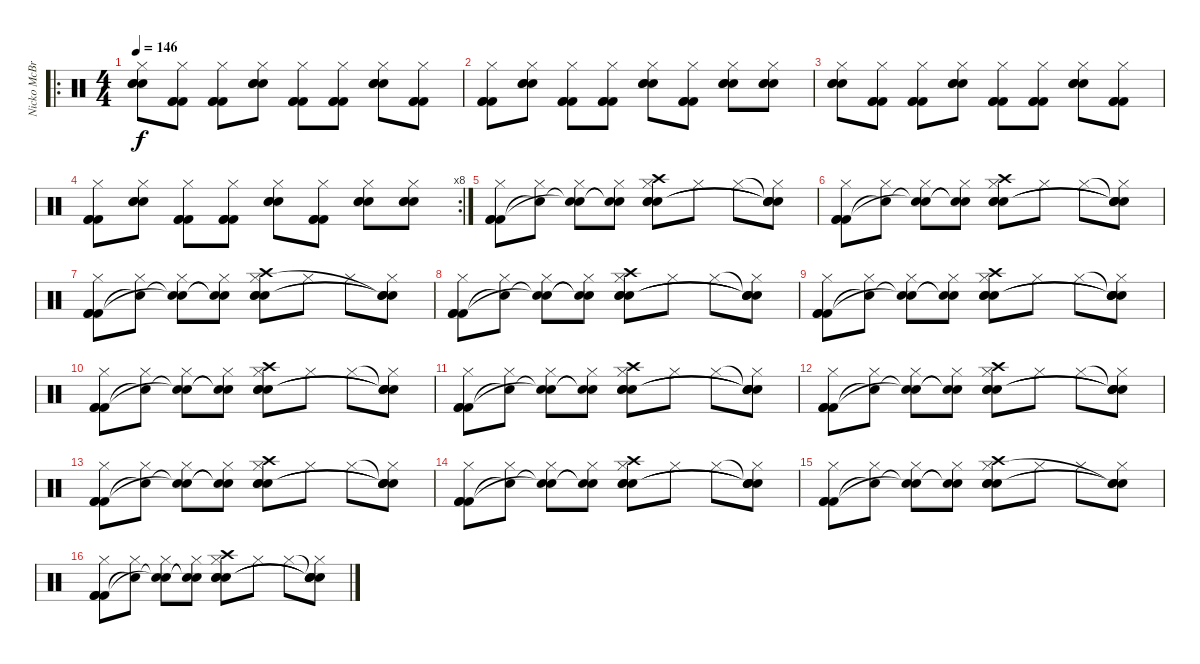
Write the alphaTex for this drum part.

\track ("Nicko McBrain" "Nicko McBr") {instrument percussion}
\staff {score}
\articulation defaults
\ro
\ts (4 4)
\tempo 146
\clef neutral
\ks c
("Hi-Hat (closed)" "Snare (hit) 2" "Snare (hit) 2" "Snare (hit) 2").8{dy f} ("Hi-Hat (closed)" "Kick (hit) 2" "Kick (hit) 2" "Kick (hit) 2").8 ("Hi-Hat (closed)" "Kick (hit) 2" "Kick (hit) 2" "Kick (hit) 2").8 ("Hi-Hat (closed)" "Snare (hit) 2" "Snare (hit) 2" "Snare (hit) 2").8 ("Hi-Hat (closed)" "Kick (hit) 2" "Kick (hit) 2" "Kick (hit) 2").8 ("Hi-Hat (closed)" "Kick (hit) 2" "Kick (hit) 2" "Kick (hit) 2").8 ("Hi-Hat (closed)" "Snare (hit) 2" "Snare (hit) 2" "Snare (hit) 2").8 ("Hi-Hat (closed)" "Kick (hit) 2" "Kick (hit) 2" "Kick (hit) 2").8 |
("Hi-Hat (closed)" "Kick (hit) 2" "Kick (hit) 2" "Kick (hit) 2").8 ("Hi-Hat (closed)" "Snare (hit) 2" "Snare (hit) 2" "Snare (hit) 2").8 ("Hi-Hat (closed)" "Kick (hit) 2" "Kick (hit) 2" "Kick (hit) 2").8 ("Hi-Hat (closed)" "Kick (hit) 2" "Kick (hit) 2" "Kick (hit) 2").8 ("Hi-Hat (closed)" "Snare (hit) 2" "Snare (hit) 2" "Snare (hit) 2").8 ("Hi-Hat (closed)" "Kick (hit) 2" "Kick (hit) 2" "Kick (hit) 2").8 ("Hi-Hat (closed)" "Snare (hit) 2" "Snare (hit) 2" "Snare (hit) 2").8 ("Hi-Hat (closed)" "Snare (hit) 2" "Snare (hit) 2" "Snare (hit) 2").8 |
("Hi-Hat (closed)" "Snare (hit) 2" "Snare (hit) 2" "Snare (hit) 2").8 ("Hi-Hat (closed)" "Kick (hit) 2" "Kick (hit) 2" "Kick (hit) 2").8 ("Hi-Hat (closed)" "Kick (hit) 2" "Kick (hit) 2" "Kick (hit) 2").8 ("Hi-Hat (closed)" "Snare (hit) 2" "Snare (hit) 2" "Snare (hit) 2").8 ("Hi-Hat (closed)" "Kick (hit) 2" "Kick (hit) 2" "Kick (hit) 2").8 ("Hi-Hat (closed)" "Kick (hit) 2" "Kick (hit) 2" "Kick (hit) 2").8 ("Hi-Hat (closed)" "Snare (hit) 2" "Snare (hit) 2" "Snare (hit) 2").8 ("Hi-Hat (closed)" "Kick (hit) 2" "Kick (hit) 2" "Kick (hit) 2").8 |
\rc 8
("Hi-Hat (closed)" "Kick (hit) 2" "Kick (hit) 2" "Kick (hit) 2").8 ("Hi-Hat (closed)" "Snare (hit) 2" "Snare (hit) 2" "Snare (hit) 2").8 ("Hi-Hat (closed)" "Kick (hit) 2" "Kick (hit) 2" "Kick (hit) 2").8 ("Hi-Hat (closed)" "Kick (hit) 2" "Kick (hit) 2" "Kick (hit) 2").8 ("Hi-Hat (closed)" "Snare (hit) 2" "Snare (hit) 2" "Snare (hit) 2").8 ("Hi-Hat (closed)" "Kick (hit) 2" "Kick (hit) 2" "Kick (hit) 2").8 ("Hi-Hat (closed)" "Snare (hit) 2" "Snare (hit) 2" "Snare (hit) 2").8 ("Hi-Hat (closed)" "Snare (hit) 2" "Snare (hit) 2" "Snare (hit) 2").8 |
("Hi-Hat (closed)" "Kick (hit) 2" "Kick (hit) 2" "Kick (hit) 2").8 ("Hi-Hat (closed)" "Snare (hit)"{t}).8 ("Hi-Hat (closed)" "Snare (hit)"{t} "Snare (hit)"{t}).8 ("Hi-Hat (closed)" "Snare (hit)"{t} "Snare (hit)"{t}).8 ("Crash high (hit)" "Hi-Hat (closed)" "Snare (hit) 2" "Snare (hit) 2" "Snare (hit) 2").8 "Hi-Hat (closed)".8 "Hi-Hat (closed)".8 ("Snare (hit)"{t} "Hi-Hat (closed)" "Snare (hit)"{t} "Snare (hit)"{t} "Snare (hit)"{t}).8 |
("Hi-Hat (closed)" "Kick (hit) 2" "Kick (hit) 2" "Kick (hit) 2").8 ("Hi-Hat (closed)" "Snare (hit)"{t}).8 ("Hi-Hat (closed)" "Snare (hit)"{t} "Snare (hit)"{t}).8 ("Hi-Hat (closed)" "Snare (hit)"{t} "Snare (hit)"{t}).8 ("Crash high (hit)" "Hi-Hat (closed)" "Snare (hit) 2" "Snare (hit) 2" "Snare (hit) 2").8 "Hi-Hat (closed)".8 "Hi-Hat (closed)".8 ("Snare (hit)"{t} "Hi-Hat (closed)" "Snare (hit)"{t} "Snare (hit)"{t} "Snare (hit)"{t}).8 |
("Hi-Hat (closed)" "Kick (hit) 2" "Kick (hit) 2" "Kick (hit) 2").8 ("Hi-Hat (closed)" "Snare (hit)"{t}).8 ("Hi-Hat (closed)" "Snare (hit)"{t} "Snare (hit)"{t}).8 ("Hi-Hat (closed)" "Snare (hit)"{t} "Snare (hit)"{t}).8 ("Crash high (hit)" "Hi-Hat (closed)" "Snare (hit) 2" "Snare (hit) 2" "Snare (hit) 2").8 "Hi-Hat (closed)".8 "Hi-Hat (closed)".8 ("Hi-Hat (closed)" "Snare (hit)"{t} "Snare (hit)"{t} "Snare (hit)"{t}).8 |
("Hi-Hat (closed)" "Kick (hit) 2" "Kick (hit) 2" "Kick (hit) 2").8 ("Hi-Hat (closed)" "Snare (hit)"{t}).8 ("Hi-Hat (closed)" "Snare (hit)"{t} "Snare (hit)"{t}).8 ("Hi-Hat (closed)" "Snare (hit)"{t} "Snare (hit)"{t}).8 ("Crash high (hit)" "Hi-Hat (closed)" "Snare (hit) 2" "Snare (hit) 2" "Snare (hit) 2").8 "Hi-Hat (closed)".8 "Hi-Hat (closed)".8 ("Snare (hit)"{t} "Hi-Hat (closed)" "Snare (hit)"{t} "Snare (hit)"{t} "Snare (hit)"{t}).8 |
("Hi-Hat (closed)" "Kick (hit) 2" "Kick (hit) 2" "Kick (hit) 2").8 ("Hi-Hat (closed)" "Snare (hit)"{t}).8 ("Hi-Hat (closed)" "Snare (hit)"{t} "Snare (hit)"{t}).8 ("Hi-Hat (closed)" "Snare (hit)"{t} "Snare (hit)"{t}).8 ("Crash high (hit)" "Hi-Hat (closed)" "Snare (hit) 2" "Snare (hit) 2" "Snare (hit) 2").8 "Hi-Hat (closed)".8 "Hi-Hat (closed)".8 ("Snare (hit)"{t} "Hi-Hat (closed)" "Snare (hit)"{t} "Snare (hit)"{t} "Snare (hit)"{t}).8 |
("Hi-Hat (closed)" "Kick (hit) 2" "Kick (hit) 2" "Kick (hit) 2").8 ("Hi-Hat (closed)" "Snare (hit)"{t}).8 ("Hi-Hat (closed)" "Snare (hit)"{t} "Snare (hit)"{t}).8 ("Hi-Hat (closed)" "Snare (hit)"{t} "Snare (hit)"{t}).8 ("Crash high (hit)" "Hi-Hat (closed)" "Snare (hit) 2" "Snare (hit) 2" "Snare (hit) 2").8 "Hi-Hat (closed)".8 "Hi-Hat (closed)".8 ("Snare (hit)"{t} "Hi-Hat (closed)" "Snare (hit)"{t} "Snare (hit)"{t} "Snare (hit)"{t}).8 |
("Hi-Hat (closed)" "Kick (hit) 2" "Kick (hit) 2" "Kick (hit) 2").8 ("Hi-Hat (closed)" "Snare (hit)"{t}).8 ("Hi-Hat (closed)" "Snare (hit)"{t} "Snare (hit)"{t}).8 ("Hi-Hat (closed)" "Snare (hit)"{t} "Snare (hit)"{t}).8 ("Crash high (hit)" "Hi-Hat (closed)" "Snare (hit) 2" "Snare (hit) 2" "Snare (hit) 2").8 "Hi-Hat (closed)".8 "Hi-Hat (closed)".8 ("Snare (hit)"{t} "Hi-Hat (closed)" "Snare (hit)"{t} "Snare (hit)"{t} "Snare (hit)"{t}).8 |
("Hi-Hat (closed)" "Kick (hit) 2" "Kick (hit) 2" "Kick (hit) 2").8 ("Hi-Hat (closed)" "Snare (hit)"{t}).8 ("Hi-Hat (closed)" "Snare (hit)"{t} "Snare (hit)"{t}).8 ("Hi-Hat (closed)" "Snare (hit)"{t} "Snare (hit)"{t}).8 ("Crash high (hit)" "Hi-Hat (closed)" "Snare (hit) 2" "Snare (hit) 2" "Snare (hit) 2").8 "Hi-Hat (closed)".8 "Hi-Hat (closed)".8 ("Snare (hit)"{t} "Hi-Hat (closed)" "Snare (hit)"{t} "Snare (hit)"{t} "Snare (hit)"{t}).8 |
("Hi-Hat (closed)" "Kick (hit) 2" "Kick (hit) 2" "Kick (hit) 2").8 ("Hi-Hat (closed)" "Snare (hit)"{t}).8 ("Hi-Hat (closed)" "Snare (hit)"{t} "Snare (hit)"{t}).8 ("Hi-Hat (closed)" "Snare (hit)"{t} "Snare (hit)"{t}).8 ("Crash high (hit)" "Hi-Hat (closed)" "Snare (hit) 2" "Snare (hit) 2" "Snare (hit) 2").8 "Hi-Hat (closed)".8 "Hi-Hat (closed)".8 ("Snare (hit)"{t} "Hi-Hat (closed)" "Snare (hit)"{t} "Snare (hit)"{t} "Snare (hit)"{t}).8 |
("Hi-Hat (closed)" "Kick (hit) 2" "Kick (hit) 2" "Kick (hit) 2").8 ("Hi-Hat (closed)" "Snare (hit)"{t}).8 ("Hi-Hat (closed)" "Snare (hit)"{t} "Snare (hit)"{t}).8 ("Hi-Hat (closed)" "Snare (hit)"{t} "Snare (hit)"{t}).8 ("Crash high (hit)" "Hi-Hat (closed)" "Snare (hit) 2" "Snare (hit) 2" "Snare (hit) 2").8 "Hi-Hat (closed)".8 "Hi-Hat (closed)".8 ("Snare (hit)"{t} "Hi-Hat (closed)" "Snare (hit)"{t} "Snare (hit)"{t} "Snare (hit)"{t}).8 |
("Hi-Hat (closed)" "Kick (hit) 2" "Kick (hit) 2" "Kick (hit) 2").8 ("Hi-Hat (closed)" "Snare (hit)"{t}).8 ("Hi-Hat (closed)" "Snare (hit)"{t} "Snare (hit)"{t}).8 ("Hi-Hat (closed)" "Snare (hit)"{t} "Snare (hit)"{t}).8 ("Crash high (hit)" "Hi-Hat (closed)" "Snare (hit) 2" "Snare (hit) 2" "Snare (hit) 2").8 "Hi-Hat (closed)".8 "Hi-Hat (closed)".8 ("Hi-Hat (closed)" "Snare (hit)"{t} "Snare (hit)"{t} "Snare (hit)"{t}).8 |
("Hi-Hat (closed)" "Kick (hit) 2" "Kick (hit) 2" "Kick (hit) 2").8 ("Hi-Hat (closed)" "Snare (hit)"{t}).8 ("Hi-Hat (closed)" "Snare (hit)"{t} "Snare (hit)"{t}).8 ("Hi-Hat (closed)" "Snare (hit)"{t} "Snare (hit)"{t}).8 ("Crash high (hit)" "Hi-Hat (closed)" "Snare (hit) 2" "Snare (hit) 2" "Snare (hit) 2").8 "Hi-Hat (closed)".8 "Hi-Hat (closed)".8 ("Snare (hit)"{t} "Hi-Hat (closed)" "Snare (hit)"{t} "Snare (hit)"{t} "Snare (hit)"{t}).8
